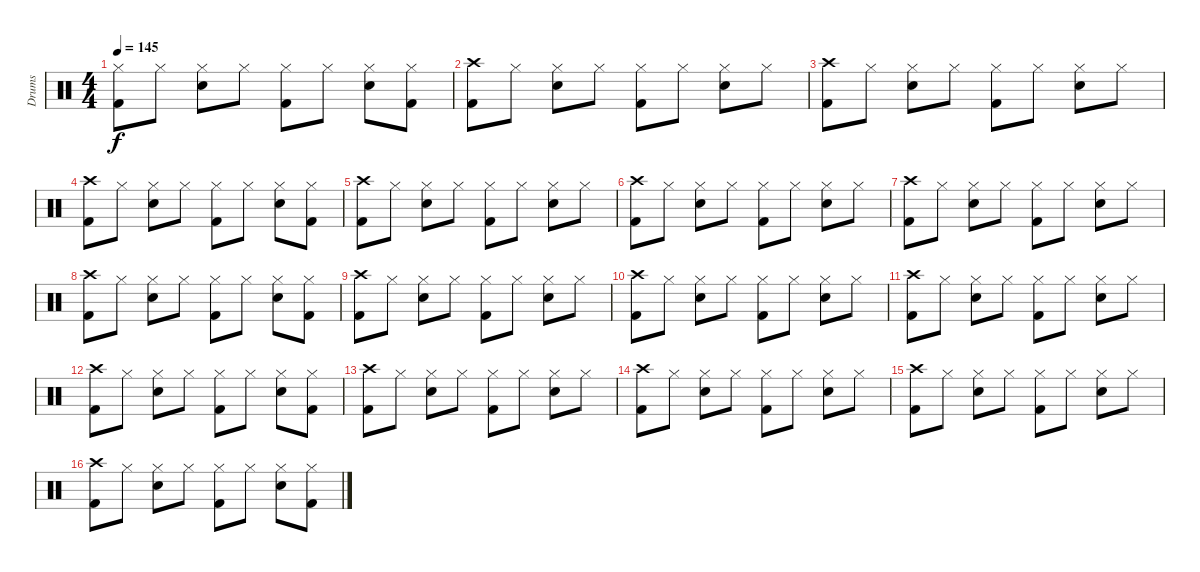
\track ("Drums" "Drums") {instrument percussion}
\staff {score}
\articulation defaults
\ts (4 4)
\tempo 145
\clef neutral
\ks c
("Hi-Hat (closed)" "Kick (hit) 2").8{dy f} "Hi-Hat (closed)".8 ("Hi-Hat (closed)" "Snare (hit) 2").8 "Hi-Hat (closed)".8 ("Hi-Hat (closed)" "Kick (hit) 2").8 "Hi-Hat (closed)".8 ("Hi-Hat (closed)" "Snare (hit) 2").8 ("Hi-Hat (closed)" "Kick (hit) 2").8 |
("Crash high (hit)" "Kick (hit) 2").8 "Hi-Hat (closed)".8 ("Hi-Hat (closed)" "Snare (hit) 2").8 "Hi-Hat (closed)".8 ("Hi-Hat (closed)" "Kick (hit) 2").8 "Hi-Hat (closed)".8 ("Hi-Hat (closed)" "Snare (hit) 2").8 "Hi-Hat (closed)".8 |
("Crash high (hit)" "Kick (hit) 2").8 "Hi-Hat (closed)".8 ("Hi-Hat (closed)" "Snare (hit) 2").8 "Hi-Hat (closed)".8 ("Hi-Hat (closed)" "Kick (hit) 2").8 "Hi-Hat (closed)".8 ("Hi-Hat (closed)" "Snare (hit) 2").8 "Hi-Hat (closed)".8 |
("Crash high (hit)" "Kick (hit) 2").8 "Hi-Hat (closed)".8 ("Hi-Hat (closed)" "Snare (hit) 2").8 "Hi-Hat (closed)".8 ("Hi-Hat (closed)" "Kick (hit) 2").8 "Hi-Hat (closed)".8 ("Hi-Hat (closed)" "Snare (hit) 2").8 ("Hi-Hat (closed)" "Kick (hit) 2").8 |
("Crash high (hit)" "Kick (hit) 2").8 "Hi-Hat (closed)".8 ("Hi-Hat (closed)" "Snare (hit) 2").8 "Hi-Hat (closed)".8 ("Hi-Hat (closed)" "Kick (hit) 2").8 "Hi-Hat (closed)".8 ("Hi-Hat (closed)" "Snare (hit) 2").8 "Hi-Hat (closed)".8 |
("Crash high (hit)" "Kick (hit) 2").8 "Hi-Hat (closed)".8 ("Hi-Hat (closed)" "Snare (hit) 2").8 "Hi-Hat (closed)".8 ("Hi-Hat (closed)" "Kick (hit) 2").8 "Hi-Hat (closed)".8 ("Hi-Hat (closed)" "Snare (hit) 2").8 "Hi-Hat (closed)".8 |
("Crash high (hit)" "Kick (hit) 2").8 "Hi-Hat (closed)".8 ("Hi-Hat (closed)" "Snare (hit) 2").8 "Hi-Hat (closed)".8 ("Hi-Hat (closed)" "Kick (hit) 2").8 "Hi-Hat (closed)".8 ("Hi-Hat (closed)" "Snare (hit) 2").8 "Hi-Hat (closed)".8 |
("Crash high (hit)" "Kick (hit) 2").8 "Hi-Hat (closed)".8 ("Hi-Hat (closed)" "Snare (hit) 2").8 "Hi-Hat (closed)".8 ("Hi-Hat (closed)" "Kick (hit) 2").8 "Hi-Hat (closed)".8 ("Hi-Hat (closed)" "Snare (hit) 2").8 ("Hi-Hat (closed)" "Kick (hit) 2").8 |
("Crash high (hit)" "Kick (hit) 2").8 "Hi-Hat (closed)".8 ("Hi-Hat (closed)" "Snare (hit) 2").8 "Hi-Hat (closed)".8 ("Hi-Hat (closed)" "Kick (hit) 2").8 "Hi-Hat (closed)".8 ("Hi-Hat (closed)" "Snare (hit) 2").8 "Hi-Hat (closed)".8 |
("Crash high (hit)" "Kick (hit) 2").8 "Hi-Hat (closed)".8 ("Hi-Hat (closed)" "Snare (hit) 2").8 "Hi-Hat (closed)".8 ("Hi-Hat (closed)" "Kick (hit) 2").8 "Hi-Hat (closed)".8 ("Hi-Hat (closed)" "Snare (hit) 2").8 "Hi-Hat (closed)".8 |
("Crash high (hit)" "Kick (hit) 2").8 "Hi-Hat (closed)".8 ("Hi-Hat (closed)" "Snare (hit) 2").8 "Hi-Hat (closed)".8 ("Hi-Hat (closed)" "Kick (hit) 2").8 "Hi-Hat (closed)".8 ("Hi-Hat (closed)" "Snare (hit) 2").8 "Hi-Hat (closed)".8 |
("Crash high (hit)" "Kick (hit) 2").8 "Hi-Hat (closed)".8 ("Hi-Hat (closed)" "Snare (hit) 2").8 "Hi-Hat (closed)".8 ("Hi-Hat (closed)" "Kick (hit) 2").8 "Hi-Hat (closed)".8 ("Hi-Hat (closed)" "Snare (hit) 2").8 ("Hi-Hat (closed)" "Kick (hit) 2").8 |
("Crash high (hit)" "Kick (hit) 2").8 "Hi-Hat (closed)".8 ("Hi-Hat (closed)" "Snare (hit) 2").8 "Hi-Hat (closed)".8 ("Hi-Hat (closed)" "Kick (hit) 2").8 "Hi-Hat (closed)".8 ("Hi-Hat (closed)" "Snare (hit) 2").8 "Hi-Hat (closed)".8 |
("Crash high (hit)" "Kick (hit) 2").8 "Hi-Hat (closed)".8 ("Hi-Hat (closed)" "Snare (hit) 2").8 "Hi-Hat (closed)".8 ("Hi-Hat (closed)" "Kick (hit) 2").8 "Hi-Hat (closed)".8 ("Hi-Hat (closed)" "Snare (hit) 2").8 "Hi-Hat (closed)".8 |
("Crash high (hit)" "Kick (hit) 2").8 "Hi-Hat (closed)".8 ("Hi-Hat (closed)" "Snare (hit) 2").8 "Hi-Hat (closed)".8 ("Hi-Hat (closed)" "Kick (hit) 2").8 "Hi-Hat (closed)".8 ("Hi-Hat (closed)" "Snare (hit) 2").8 "Hi-Hat (closed)".8 |
("Crash high (hit)" "Kick (hit) 2").8 "Hi-Hat (closed)".8 ("Hi-Hat (closed)" "Snare (hit) 2").8 "Hi-Hat (closed)".8 ("Hi-Hat (closed)" "Kick (hit) 2").8 "Hi-Hat (closed)".8 ("Hi-Hat (closed)" "Snare (hit) 2").8 ("Hi-Hat (closed)" "Kick (hit) 2").8
